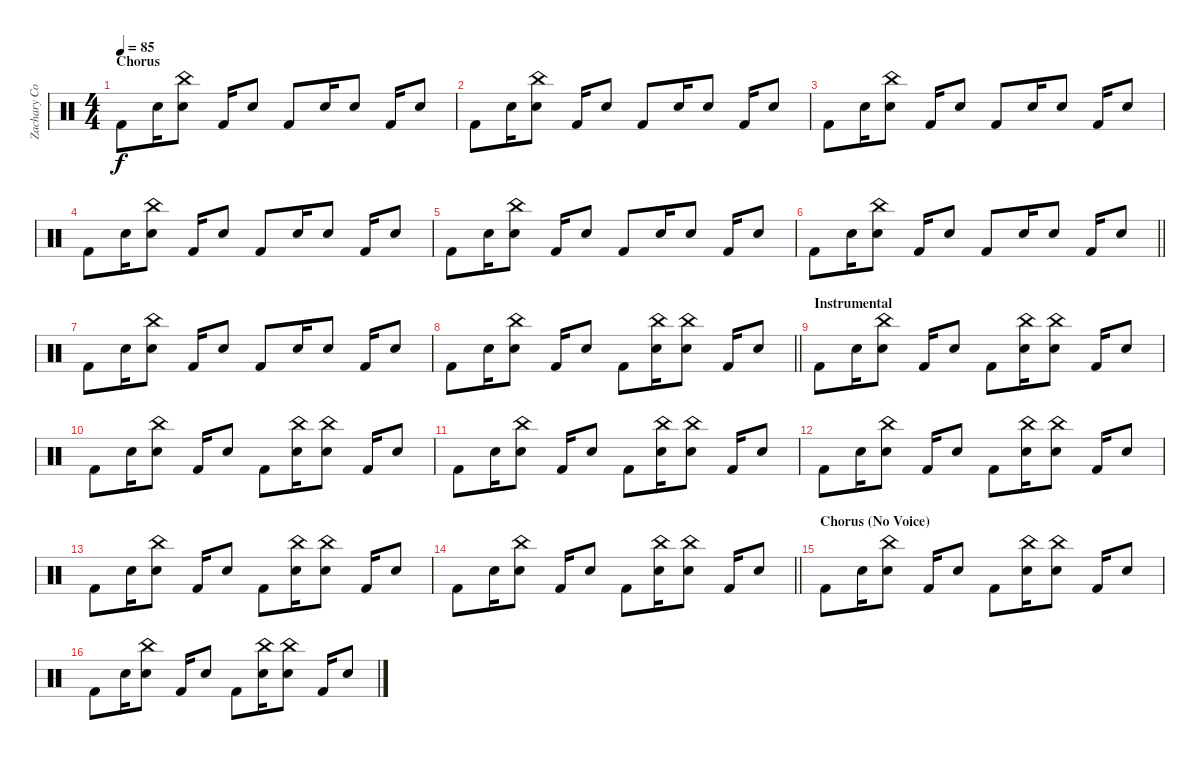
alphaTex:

\track ("Zachary Cole Smith" "Zachary Co") {instrument percussion}
\staff {score}
\articulation defaults
\ts (4 4)
\section ("" "Chorus")
\tempo 85
\clef neutral
\ks c "Kick (hit) 2".8{dy f} "Electric Snare (hit)".16
("China (hit)" "Electric Snare (hit)").8 "Kick (hit) 2".16 "Electric Snare (hit)".8 "Kick (hit) 2".8 "Electric Snare (hit)".16 "Electric Snare (hit)".8 "Kick (hit) 2".16 "Electric Snare (hit)".8 |
"Kick (hit) 2".8 "Electric Snare (hit)".16 ("China (hit)" "Electric Snare (hit)").8 "Kick (hit) 2".16 "Electric Snare (hit)".8 "Kick (hit) 2".8 "Electric Snare (hit)".16 "Electric Snare (hit)".8 "Kick (hit) 2".16 "Electric Snare (hit)".8 |
"Kick (hit) 2".8 "Electric Snare (hit)".16 ("China (hit)" "Electric Snare (hit)").8 "Kick (hit) 2".16 "Electric Snare (hit)".8 "Kick (hit) 2".8 "Electric Snare (hit)".16 "Electric Snare (hit)".8 "Kick (hit) 2".16 "Electric Snare (hit)".8 |
"Kick (hit) 2".8 "Electric Snare (hit)".16 ("China (hit)" "Electric Snare (hit)").8 "Kick (hit) 2".16 "Electric Snare (hit)".8 "Kick (hit) 2".8 "Electric Snare (hit)".16 "Electric Snare (hit)".8 "Kick (hit) 2".16 "Electric Snare (hit)".8 |
"Kick (hit) 2".8 "Electric Snare (hit)".16 ("China (hit)" "Electric Snare (hit)").8 "Kick (hit) 2".16 "Electric Snare (hit)".8 "Kick (hit) 2".8 "Electric Snare (hit)".16 "Electric Snare (hit)".8 "Kick (hit) 2".16 "Electric Snare (hit)".8 |
\barLineRight lightlight "Kick (hit) 2".8 "Electric Snare (hit)".16
("China (hit)" "Electric Snare (hit)").8 "Kick (hit) 2".16 "Electric Snare (hit)".8 "Kick (hit) 2".8 "Electric Snare (hit)".16 "Electric Snare (hit)".8 "Kick (hit) 2".16 "Electric Snare (hit)".8 |
"Kick (hit) 2".8 "Electric Snare (hit)".16 ("China (hit)" "Electric Snare (hit)").8 "Kick (hit) 2".16 "Electric Snare (hit)".8 "Kick (hit) 2".8 "Electric Snare (hit)".16 "Electric Snare (hit)".8 "Kick (hit) 2".16 "Electric Snare (hit)".8 |
\barLineRight lightlight "Kick (hit) 2".8 "Electric Snare (hit)".16
("China (hit)" "Electric Snare (hit)").8 "Kick (hit) 2".16 "Electric Snare (hit)".8 "Kick (hit) 2".8 ("China (hit)" "Electric Snare (hit)").16 ("China (hit)" "Electric Snare (hit)").8 "Kick (hit) 2".16 "Electric Snare (hit)".8 |
\section ("" "Instrumental")
"Kick (hit) 2".8 "Electric Snare (hit)".16 ("China (hit)" "Electric Snare (hit)").8 "Kick (hit) 2".16 "Electric Snare (hit)".8 "Kick (hit) 2".8 ("China (hit)" "Electric Snare (hit)").16 ("China (hit)" "Electric Snare (hit)").8 "Kick (hit) 2".16 "Electric Snare (hit)".8 |
"Kick (hit) 2".8 "Electric Snare (hit)".16 ("China (hit)" "Electric Snare (hit)").8 "Kick (hit) 2".16 "Electric Snare (hit)".8 "Kick (hit) 2".8 ("China (hit)" "Electric Snare (hit)").16 ("China (hit)" "Electric Snare (hit)").8 "Kick (hit) 2".16 "Electric Snare (hit)".8 |
"Kick (hit) 2".8 "Electric Snare (hit)".16 ("China (hit)" "Electric Snare (hit)").8 "Kick (hit) 2".16 "Electric Snare (hit)".8 "Kick (hit) 2".8 ("China (hit)" "Electric Snare (hit)").16 ("China (hit)" "Electric Snare (hit)").8 "Kick (hit) 2".16 "Electric Snare (hit)".8 |
"Kick (hit) 2".8 "Electric Snare (hit)".16 ("China (hit)" "Electric Snare (hit)").8 "Kick (hit) 2".16 "Electric Snare (hit)".8 "Kick (hit) 2".8 ("China (hit)" "Electric Snare (hit)").16 ("China (hit)" "Electric Snare (hit)").8 "Kick (hit) 2".16 "Electric Snare (hit)".8 |
"Kick (hit) 2".8 "Electric Snare (hit)".16 ("China (hit)" "Electric Snare (hit)").8 "Kick (hit) 2".16 "Electric Snare (hit)".8 "Kick (hit) 2".8 ("China (hit)" "Electric Snare (hit)").16 ("China (hit)" "Electric Snare (hit)").8 "Kick (hit) 2".16 "Electric Snare (hit)".8 |
\barLineRight lightlight "Kick (hit) 2".8 "Electric Snare (hit)".16
("China (hit)" "Electric Snare (hit)").8 "Kick (hit) 2".16 "Electric Snare (hit)".8 "Kick (hit) 2".8 ("China (hit)" "Electric Snare (hit)").16 ("China (hit)" "Electric Snare (hit)").8 "Kick (hit) 2".16 "Electric Snare (hit)".8 |
\section ("" "Chorus (No Voice)")
"Kick (hit) 2".8 "Electric Snare (hit)".16 ("China (hit)" "Electric Snare (hit)").8 "Kick (hit) 2".16 "Electric Snare (hit)".8 "Kick (hit) 2".8 ("China (hit)" "Electric Snare (hit)").16 ("China (hit)" "Electric Snare (hit)").8 "Kick (hit) 2".16 "Electric Snare (hit)".8 |
"Kick (hit) 2".8 "Electric Snare (hit)".16 ("China (hit)" "Electric Snare (hit)").8 "Kick (hit) 2".16 "Electric Snare (hit)".8 "Kick (hit) 2".8 ("China (hit)" "Electric Snare (hit)").16 ("China (hit)" "Electric Snare (hit)").8 "Kick (hit) 2".16 "Electric Snare (hit)".8
